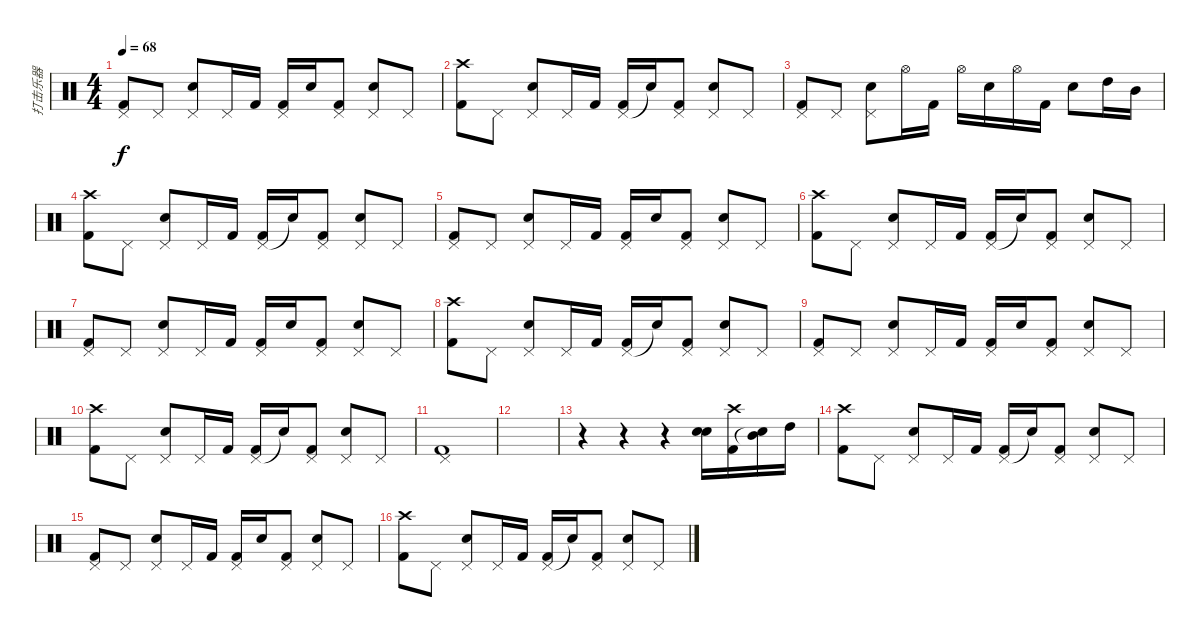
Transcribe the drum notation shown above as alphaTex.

\track ("打击乐器" "打击乐器") {instrument percussion}
\staff {score}
\articulation defaults
\ts (4 4)
\tempo 68
\clef neutral
\ks c
("Pedal Hi-Hat (hit)" "Kick (hit) 2").8{dy f} "Pedal Hi-Hat (hit)".8 ("Electric Snare (hit)" "Pedal Hi-Hat (hit)").8 "Pedal Hi-Hat (hit)".16 "Kick (hit) 2".16 ("Pedal Hi-Hat (hit)" "Kick (hit) 2").16 "Electric Snare (hit)".16 ("Kick (hit) 2" "Pedal Hi-Hat (hit)").8 ("Electric Snare (hit)" "Pedal Hi-Hat (hit)").8 "Pedal Hi-Hat (hit)".8 |
("Crash high (hit)" "Kick (hit) 2").8 "Pedal Hi-Hat (hit)".8 ("Electric Snare (hit)" "Pedal Hi-Hat (hit)").8 "Pedal Hi-Hat (hit)".16 "Kick (hit) 2".16 ("Pedal Hi-Hat (hit)" "Kick (hit) 2").16 "Electric Snare (hit)"{t}.16 ("Kick (hit) 2" "Pedal Hi-Hat (hit)").8 ("Electric Snare (hit)" "Pedal Hi-Hat (hit)").8 "Pedal Hi-Hat (hit)".8 |
("Pedal Hi-Hat (hit)" "Kick (hit) 2").8 "Pedal Hi-Hat (hit)".8 ("Electric Snare (hit)" "Pedal Hi-Hat (hit)").8 "Hi-Hat (open)".16 "Kick (hit) 2".16 "Hi-Hat (open)".16 "Electric Snare (hit)".16 "Hi-Hat (open)".16 "Kick (hit) 2".16 "Electric Snare (hit)".8 "High Tom (hit)".16 "Mid Tom (hit)".16 |
("Crash high (hit)" "Kick (hit) 2").8 "Pedal Hi-Hat (hit)".8 ("Electric Snare (hit)" "Pedal Hi-Hat (hit)").8 "Pedal Hi-Hat (hit)".16 "Kick (hit) 2".16 ("Pedal Hi-Hat (hit)" "Kick (hit) 2").16 "Electric Snare (hit)"{t}.16 ("Kick (hit) 2" "Pedal Hi-Hat (hit)").8 ("Electric Snare (hit)" "Pedal Hi-Hat (hit)").8 "Pedal Hi-Hat (hit)".8 |
("Pedal Hi-Hat (hit)" "Kick (hit) 2").8 "Pedal Hi-Hat (hit)".8 ("Electric Snare (hit)" "Pedal Hi-Hat (hit)").8 "Pedal Hi-Hat (hit)".16 "Kick (hit) 2".16 ("Pedal Hi-Hat (hit)" "Kick (hit) 2").16 "Electric Snare (hit)".16 ("Kick (hit) 2" "Pedal Hi-Hat (hit)").8 ("Electric Snare (hit)" "Pedal Hi-Hat (hit)").8 "Pedal Hi-Hat (hit)".8 |
("Crash high (hit)" "Kick (hit) 2").8 "Pedal Hi-Hat (hit)".8 ("Electric Snare (hit)" "Pedal Hi-Hat (hit)").8 "Pedal Hi-Hat (hit)".16 "Kick (hit) 2".16 ("Pedal Hi-Hat (hit)" "Kick (hit) 2").16 "Electric Snare (hit)"{t}.16 ("Kick (hit) 2" "Pedal Hi-Hat (hit)").8 ("Electric Snare (hit)" "Pedal Hi-Hat (hit)").8 "Pedal Hi-Hat (hit)".8 |
("Pedal Hi-Hat (hit)" "Kick (hit) 2").8 "Pedal Hi-Hat (hit)".8 ("Electric Snare (hit)" "Pedal Hi-Hat (hit)").8 "Pedal Hi-Hat (hit)".16 "Kick (hit) 2".16 ("Pedal Hi-Hat (hit)" "Kick (hit) 2").16 "Electric Snare (hit)".16 ("Kick (hit) 2" "Pedal Hi-Hat (hit)").8 ("Electric Snare (hit)" "Pedal Hi-Hat (hit)").8 "Pedal Hi-Hat (hit)".8 |
("Crash high (hit)" "Kick (hit) 2").8 "Pedal Hi-Hat (hit)".8 ("Electric Snare (hit)" "Pedal Hi-Hat (hit)").8 "Pedal Hi-Hat (hit)".16 "Kick (hit) 2".16 ("Pedal Hi-Hat (hit)" "Kick (hit) 2").16 "Electric Snare (hit)"{t}.16 ("Kick (hit) 2" "Pedal Hi-Hat (hit)").8 ("Electric Snare (hit)" "Pedal Hi-Hat (hit)").8 "Pedal Hi-Hat (hit)".8 |
("Pedal Hi-Hat (hit)" "Kick (hit) 2").8 "Pedal Hi-Hat (hit)".8 ("Electric Snare (hit)" "Pedal Hi-Hat (hit)").8 "Pedal Hi-Hat (hit)".16 "Kick (hit) 2".16 ("Pedal Hi-Hat (hit)" "Kick (hit) 2").16 "Electric Snare (hit)".16 ("Kick (hit) 2" "Pedal Hi-Hat (hit)").8 ("Electric Snare (hit)" "Pedal Hi-Hat (hit)").8 "Pedal Hi-Hat (hit)".8 |
("Crash high (hit)" "Kick (hit) 2").8 "Pedal Hi-Hat (hit)".8 ("Electric Snare (hit)" "Pedal Hi-Hat (hit)").8 "Pedal Hi-Hat (hit)".16 "Kick (hit) 2".16 ("Pedal Hi-Hat (hit)" "Kick (hit) 2").16 "Electric Snare (hit)"{t}.16 ("Kick (hit) 2" "Pedal Hi-Hat (hit)").8 ("Electric Snare (hit)" "Pedal Hi-Hat (hit)").8 "Pedal Hi-Hat (hit)".8 |
("Pedal Hi-Hat (hit)" "Kick (hit) 2").1 |
|
r.4 r.4 r.4 ("Electric Snare (hit)" "Electric Snare (hit)").16 ("Crash high (hit)" "Kick (hit) 2").16 ("Mid Tom (hit)" "Snare (hit)"{t}).16 "High Tom (hit)".16 |
("Crash high (hit)" "Kick (hit) 2").8 "Pedal Hi-Hat (hit)".8 ("Electric Snare (hit)" "Pedal Hi-Hat (hit)").8 "Pedal Hi-Hat (hit)".16 "Kick (hit) 2".16 ("Pedal Hi-Hat (hit)" "Kick (hit) 2").16 "Electric Snare (hit)"{t}.16 ("Kick (hit) 2" "Pedal Hi-Hat (hit)").8 ("Electric Snare (hit)" "Pedal Hi-Hat (hit)").8 "Pedal Hi-Hat (hit)".8 |
("Pedal Hi-Hat (hit)" "Kick (hit) 2").8 "Pedal Hi-Hat (hit)".8 ("Electric Snare (hit)" "Pedal Hi-Hat (hit)").8 "Pedal Hi-Hat (hit)".16 "Kick (hit) 2".16 ("Pedal Hi-Hat (hit)" "Kick (hit) 2").16 "Electric Snare (hit)".16 ("Kick (hit) 2" "Pedal Hi-Hat (hit)").8 ("Electric Snare (hit)" "Pedal Hi-Hat (hit)").8 "Pedal Hi-Hat (hit)".8 |
("Crash high (hit)" "Kick (hit) 2").8 "Pedal Hi-Hat (hit)".8 ("Electric Snare (hit)" "Pedal Hi-Hat (hit)").8 "Pedal Hi-Hat (hit)".16 "Kick (hit) 2".16 ("Pedal Hi-Hat (hit)" "Kick (hit) 2").16 "Electric Snare (hit)"{t}.16 ("Kick (hit) 2" "Pedal Hi-Hat (hit)").8 ("Electric Snare (hit)" "Pedal Hi-Hat (hit)").8 "Pedal Hi-Hat (hit)".8
